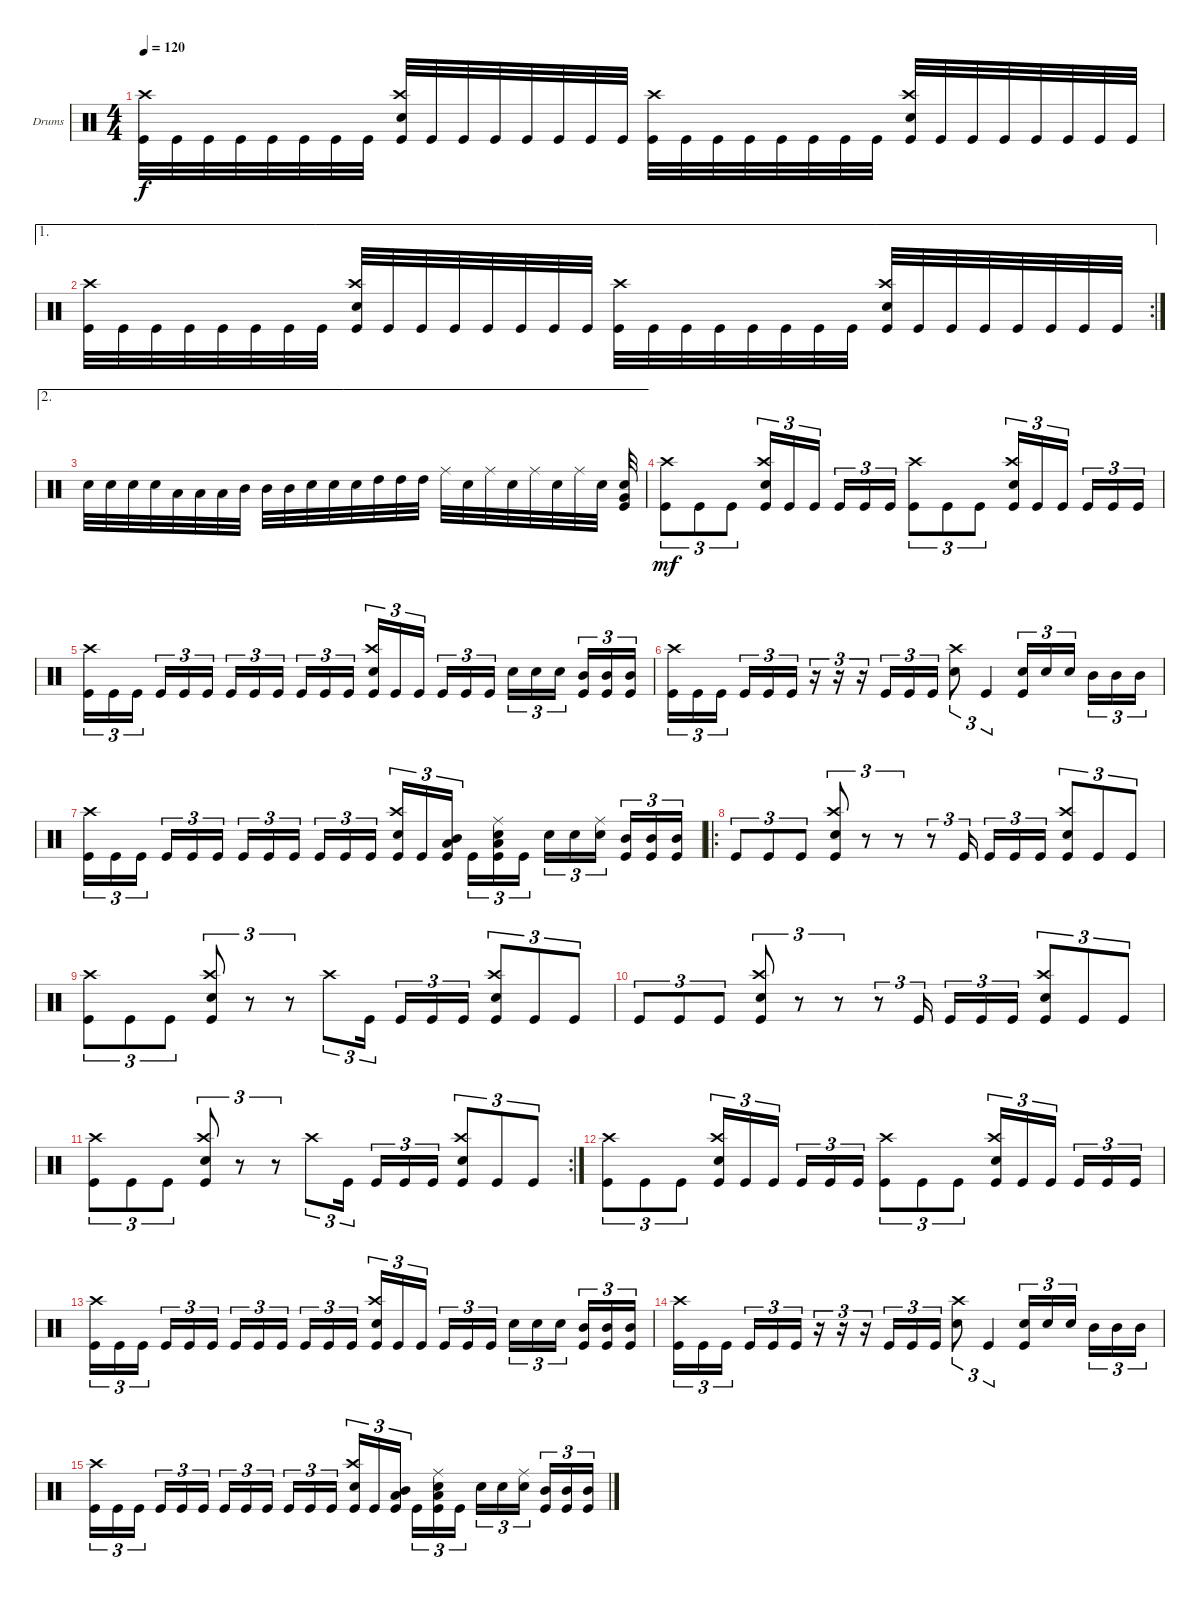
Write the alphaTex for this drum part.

\defaultSystemsLayout 4
\bracketExtendMode groupsimilarinstruments
\firstSystemTrackNameOrientation horizontal
\otherSystemsTrackNameOrientation horizontal
\track ("Drumkit" "Drums") {instrument percussion}
\staff {score}
\articulation defaults
\ts (4 4)
\tempo 120
\clef neutral
\ks c
("Kick (hit)" "Crash high (hit)").32{dy f} "Kick (hit)".32 "Kick (hit)".32 "Kick (hit)".32 "Kick (hit)".32 "Kick (hit)".32 "Kick (hit)".32 "Kick (hit)".32 ("Kick (hit)" "Crash high (hit)" "Snare (hit) 2").32 "Kick (hit)".32 "Kick (hit)".32 "Kick (hit)".32 "Kick (hit)".32 "Kick (hit)".32 "Kick (hit)".32 "Kick (hit)".32 ("Kick (hit)" "Crash high (hit)").32 "Kick (hit)".32 "Kick (hit)".32 "Kick (hit)".32 "Kick (hit)".32 "Kick (hit)".32 "Kick (hit)".32 "Kick (hit)".32 ("Kick (hit)" "Crash high (hit)" "Snare (hit) 2").32 "Kick (hit)".32 "Kick (hit)".32 "Kick (hit)".32 "Kick (hit)".32 "Kick (hit)".32 "Kick (hit)".32 "Kick (hit)".32 |
\ae 1
\rc 2
("Kick (hit)" "Crash high (hit)").32 "Kick (hit)".32 "Kick (hit)".32 "Kick (hit)".32 "Kick (hit)".32 "Kick (hit)".32 "Kick (hit)".32 "Kick (hit)".32 ("Kick (hit)" "Crash high (hit)" "Snare (hit) 2").32 "Kick (hit)".32 "Kick (hit)".32 "Kick (hit)".32 "Kick (hit)".32 "Kick (hit)".32 "Kick (hit)".32 "Kick (hit)".32 ("Kick (hit)" "Crash high (hit)").32 "Kick (hit)".32 "Kick (hit)".32 "Kick (hit)".32 "Kick (hit)".32 "Kick (hit)".32 "Kick (hit)".32 "Kick (hit)".32 ("Kick (hit)" "Crash high (hit)" "Snare (hit) 2").32 "Kick (hit)".32 "Kick (hit)".32 "Kick (hit)".32 "Kick (hit)".32 "Kick (hit)".32 "Kick (hit)".32 "Kick (hit)".32 |
\ae 2 "Snare (hit) 2".32 "Snare (hit) 2".32 "Snare (hit) 2".32 "Snare (hit) 2".32 "Low Tom (hit)".32 "Low Tom (hit)".32 "Low Tom (hit)".32 "Mid Tom (hit)".32 "Mid Tom (hit)".32 "Mid Tom (hit)".32 "Snare (hit) 2".32 "Snare (hit) 2".32 "Snare (hit) 2".32 "High Tom (hit)".32 "High Tom (hit)".32 "High Tom (hit)".32 "Ride (middle)".32 "Snare (hit) 2".32 "Ride (middle)".32 "Snare (hit) 2".32 "Ride (middle)".32 "Snare (hit) 2".32 "Ride (middle)".32 "Snare (hit) 2".32
("Kick (hit)" "Very Low Tom (hit)" "Snare (hit) 2").32 |
("Kick (hit)" "Crash high (hit)").8{tu (3 2) dy mf} "Kick (hit)".8{tu (3 2)} "Kick (hit)".8{tu (3 2)} ("Kick (hit)" "Crash high (hit)" "Snare (hit) 2").16{tu (3 2)} "Kick (hit)".16{tu (3 2)} "Kick (hit)".16{tu (3 2)} "Kick (hit)".16{tu (3 2)} "Kick (hit)".16{tu (3 2)} "Kick (hit)".16{tu (3 2)} ("Kick (hit)" "Crash high (hit)").8{tu (3 2)} "Kick (hit)".8{tu (3 2)} "Kick (hit)".8{tu (3 2)} ("Kick (hit)" "Crash high (hit)" "Snare (hit) 2").16{tu (3 2)} "Kick (hit)".16{tu (3 2)} "Kick (hit)".16{tu (3 2)} "Kick (hit)".16{tu (3 2)} "Kick (hit)".16{tu (3 2)} "Kick (hit)".16{tu (3 2)} |
("Kick (hit)" "Crash high (hit)").16{tu (3 2)} "Kick (hit)".16{tu (3 2)} "Kick (hit)".16{tu (3 2)} "Kick (hit)".16{tu (3 2)} "Kick (hit)".16{tu (3 2)} "Kick (hit)".16{tu (3 2)} "Kick (hit)".16{tu (3 2)} "Kick (hit)".16{tu (3 2)} "Kick (hit)".16{tu (3 2)} "Kick (hit)".16{tu (3 2)} "Kick (hit)".16{tu (3 2)} "Kick (hit)".16{tu (3 2)} ("Kick (hit)" "Crash high (hit)" "Snare (hit) 2").16{tu (3 2)} "Kick (hit)".16{tu (3 2)} "Kick (hit)".16{tu (3 2)} "Kick (hit)".16{tu (3 2)} "Kick (hit)".16{tu (3 2)} "Kick (hit)".16{tu (3 2)} "Snare (hit) 2".16{tu (3 2)} "Snare (hit) 2".16{tu (3 2)} "Snare (hit) 2".16{tu (3 2)} ("Kick (hit)" "Mid Tom (hit)").16{tu (3 2)} ("Kick (hit)" "Mid Tom (hit)").16{tu (3 2)} ("Kick (hit)" "Mid Tom (hit)").16{tu (3 2)} |
("Kick (hit)" "Crash high (hit)").16{tu (3 2)} "Kick (hit)".16{tu (3 2)} "Kick (hit)".16{tu (3 2)} "Kick (hit)".16{tu (3 2)} "Kick (hit)".16{tu (3 2)} "Kick (hit)".16{tu (3 2)} r.16{tu (3 2)} r.16{tu (3 2)} r.16{tu (3 2)} "Kick (hit)".16{tu (3 2)} "Kick (hit)".16{tu (3 2)} "Kick (hit)".16{tu (3 2)} ("Snare (hit) 2" "Crash high (hit)").8{tu (3 2)} "Kick (hit)".4{tu (3 2)} ("Kick (hit)" "Snare (hit) 2").16{tu (3 2)} "Snare (hit) 2".16{tu (3 2)} "Snare (hit) 2".16{tu (3 2)} "Mid Tom (hit)".16{tu (3 2)} "Mid Tom (hit)".16{tu (3 2)} "Mid Tom (hit)".16{tu (3 2)} |
("Kick (hit)" "Crash high (hit)").16{tu (3 2)} "Kick (hit)".16{tu (3 2)} "Kick (hit)".16{tu (3 2)} "Kick (hit)".16{tu (3 2)} "Kick (hit)".16{tu (3 2)} "Kick (hit)".16{tu (3 2)} "Kick (hit)".16{tu (3 2)} "Kick (hit)".16{tu (3 2)} "Kick (hit)".16{tu (3 2)} "Kick (hit)".16{tu (3 2)} "Kick (hit)".16{tu (3 2)} "Kick (hit)".16{tu (3 2)} ("Kick (hit)" "Crash high (hit)" "Snare (hit) 2").16{tu (3 2)} "Kick (hit)".16{tu (3 2)} ("Kick (hit)" "Low Tom (hit)" "Mid Tom (hit)").16{tu (3 2)} "Kick (hit)".16{tu (3 2)} ("Kick (hit)" "Low Tom (hit)" "Snare (hit) 2" "Ride (middle)").16{tu (3 2)} "Kick (hit)".16{tu (3 2)} "Snare (hit) 2".16{tu (3 2)} "Snare (hit) 2".16{tu (3 2)} ("Snare (hit) 2" "Ride (middle)").16{tu (3 2)} ("Kick (hit)" "Mid Tom (hit)").16{tu (3 2)} ("Kick (hit)" "Mid Tom (hit)").16{tu (3 2)} ("Kick (hit)" "Mid Tom (hit)").16{tu (3 2)} |
\ro "Kick (hit)".8{tu (3 2)} "Kick (hit)".8{tu (3 2)} "Kick (hit)".8{tu (3 2)}
("Kick (hit)" "Snare (hit) 2" "Crash high (hit)").8{tu (3 2)} r.8{tu (3 2)} r.8{tu (3 2)} r.8{tu (3 2)} "Kick (hit)".16{tu (3 2)} "Kick (hit)".16{tu (3 2)} "Kick (hit)".16{tu (3 2)} "Kick (hit)".16{tu (3 2)} ("Kick (hit)" "Crash high (hit)" "Snare (hit) 2").8{tu (3 2)} "Kick (hit)".8{tu (3 2)} "Kick (hit)".8{tu (3 2)} |
("Kick (hit)" "Crash high (hit)").8{tu (3 2)} "Kick (hit)".8{tu (3 2)} "Kick (hit)".8{tu (3 2)} ("Kick (hit)" "Snare (hit) 2" "Crash high (hit)").8{tu (3 2)} r.8{tu (3 2)} r.8{tu (3 2)} "Crash high (hit)".8{tu (3 2)} "Kick (hit)".16{tu (3 2)} "Kick (hit)".16{tu (3 2)} "Kick (hit)".16{tu (3 2)} "Kick (hit)".16{tu (3 2)} ("Kick (hit)" "Crash high (hit)" "Snare (hit) 2").8{tu (3 2)} "Kick (hit)".8{tu (3 2)} "Kick (hit)".8{tu (3 2)} |
"Kick (hit)".8{tu (3 2)} "Kick (hit)".8{tu (3 2)} "Kick (hit)".8{tu (3 2)} ("Kick (hit)" "Snare (hit) 2" "Crash high (hit)").8{tu (3 2)} r.8{tu (3 2)} r.8{tu (3 2)} r.8{tu (3 2)} "Kick (hit)".16{tu (3 2)} "Kick (hit)".16{tu (3 2)} "Kick (hit)".16{tu (3 2)} "Kick (hit)".16{tu (3 2)} ("Kick (hit)" "Crash high (hit)" "Snare (hit) 2").8{tu (3 2)} "Kick (hit)".8{tu (3 2)} "Kick (hit)".8{tu (3 2)} |
\rc 2
("Kick (hit)" "Crash high (hit)").8{tu (3 2)} "Kick (hit)".8{tu (3 2)} "Kick (hit)".8{tu (3 2)} ("Kick (hit)" "Snare (hit) 2" "Crash high (hit)").8{tu (3 2)} r.8{tu (3 2)} r.8{tu (3 2)} "Crash high (hit)".8{tu (3 2)} "Kick (hit)".16{tu (3 2)} "Kick (hit)".16{tu (3 2)} "Kick (hit)".16{tu (3 2)} "Kick (hit)".16{tu (3 2)} ("Kick (hit)" "Crash high (hit)" "Snare (hit) 2").8{tu (3 2)} "Kick (hit)".8{tu (3 2)} "Kick (hit)".8{tu (3 2)} |
("Kick (hit)" "Crash high (hit)").8{tu (3 2)} "Kick (hit)".8{tu (3 2)} "Kick (hit)".8{tu (3 2)} ("Kick (hit)" "Crash high (hit)" "Snare (hit) 2").16{tu (3 2)} "Kick (hit)".16{tu (3 2)} "Kick (hit)".16{tu (3 2)} "Kick (hit)".16{tu (3 2)} "Kick (hit)".16{tu (3 2)} "Kick (hit)".16{tu (3 2)} ("Kick (hit)" "Crash high (hit)").8{tu (3 2)} "Kick (hit)".8{tu (3 2)} "Kick (hit)".8{tu (3 2)} ("Kick (hit)" "Crash high (hit)" "Snare (hit) 2").16{tu (3 2)} "Kick (hit)".16{tu (3 2)} "Kick (hit)".16{tu (3 2)} "Kick (hit)".16{tu (3 2)} "Kick (hit)".16{tu (3 2)} "Kick (hit)".16{tu (3 2)} |
("Kick (hit)" "Crash high (hit)").16{tu (3 2)} "Kick (hit)".16{tu (3 2)} "Kick (hit)".16{tu (3 2)} "Kick (hit)".16{tu (3 2)} "Kick (hit)".16{tu (3 2)} "Kick (hit)".16{tu (3 2)} "Kick (hit)".16{tu (3 2)} "Kick (hit)".16{tu (3 2)} "Kick (hit)".16{tu (3 2)} "Kick (hit)".16{tu (3 2)} "Kick (hit)".16{tu (3 2)} "Kick (hit)".16{tu (3 2)} ("Kick (hit)" "Crash high (hit)" "Snare (hit) 2").16{tu (3 2)} "Kick (hit)".16{tu (3 2)} "Kick (hit)".16{tu (3 2)} "Kick (hit)".16{tu (3 2)} "Kick (hit)".16{tu (3 2)} "Kick (hit)".16{tu (3 2)} "Snare (hit) 2".16{tu (3 2)} "Snare (hit) 2".16{tu (3 2)} "Snare (hit) 2".16{tu (3 2)} ("Kick (hit)" "Mid Tom (hit)").16{tu (3 2)} ("Kick (hit)" "Mid Tom (hit)").16{tu (3 2)} ("Kick (hit)" "Mid Tom (hit)").16{tu (3 2)} |
("Kick (hit)" "Crash high (hit)").16{tu (3 2)} "Kick (hit)".16{tu (3 2)} "Kick (hit)".16{tu (3 2)} "Kick (hit)".16{tu (3 2)} "Kick (hit)".16{tu (3 2)} "Kick (hit)".16{tu (3 2)} r.16{tu (3 2)} r.16{tu (3 2)} r.16{tu (3 2)} "Kick (hit)".16{tu (3 2)} "Kick (hit)".16{tu (3 2)} "Kick (hit)".16{tu (3 2)} ("Snare (hit) 2" "Crash high (hit)").8{tu (3 2)} "Kick (hit)".4{tu (3 2)} ("Kick (hit)" "Snare (hit) 2").16{tu (3 2)} "Snare (hit) 2".16{tu (3 2)} "Snare (hit) 2".16{tu (3 2)} "Mid Tom (hit)".16{tu (3 2)} "Mid Tom (hit)".16{tu (3 2)} "Mid Tom (hit)".16{tu (3 2)} |
("Kick (hit)" "Crash high (hit)").16{tu (3 2)} "Kick (hit)".16{tu (3 2)} "Kick (hit)".16{tu (3 2)} "Kick (hit)".16{tu (3 2)} "Kick (hit)".16{tu (3 2)} "Kick (hit)".16{tu (3 2)} "Kick (hit)".16{tu (3 2)} "Kick (hit)".16{tu (3 2)} "Kick (hit)".16{tu (3 2)} "Kick (hit)".16{tu (3 2)} "Kick (hit)".16{tu (3 2)} "Kick (hit)".16{tu (3 2)} ("Kick (hit)" "Crash high (hit)" "Snare (hit) 2").16{tu (3 2)} "Kick (hit)".16{tu (3 2)} ("Kick (hit)" "Low Tom (hit)" "Mid Tom (hit)").16{tu (3 2)} "Kick (hit)".16{tu (3 2)} ("Kick (hit)" "Low Tom (hit)" "Snare (hit) 2" "Ride (middle)").16{tu (3 2)} "Kick (hit)".16{tu (3 2)} "Snare (hit) 2".16{tu (3 2)} "Snare (hit) 2".16{tu (3 2)} ("Snare (hit) 2" "Ride (middle)").16{tu (3 2)} ("Kick (hit)" "Mid Tom (hit)").16{tu (3 2)} ("Kick (hit)" "Mid Tom (hit)").16{tu (3 2)} ("Kick (hit)" "Mid Tom (hit)").16{tu (3 2)}
